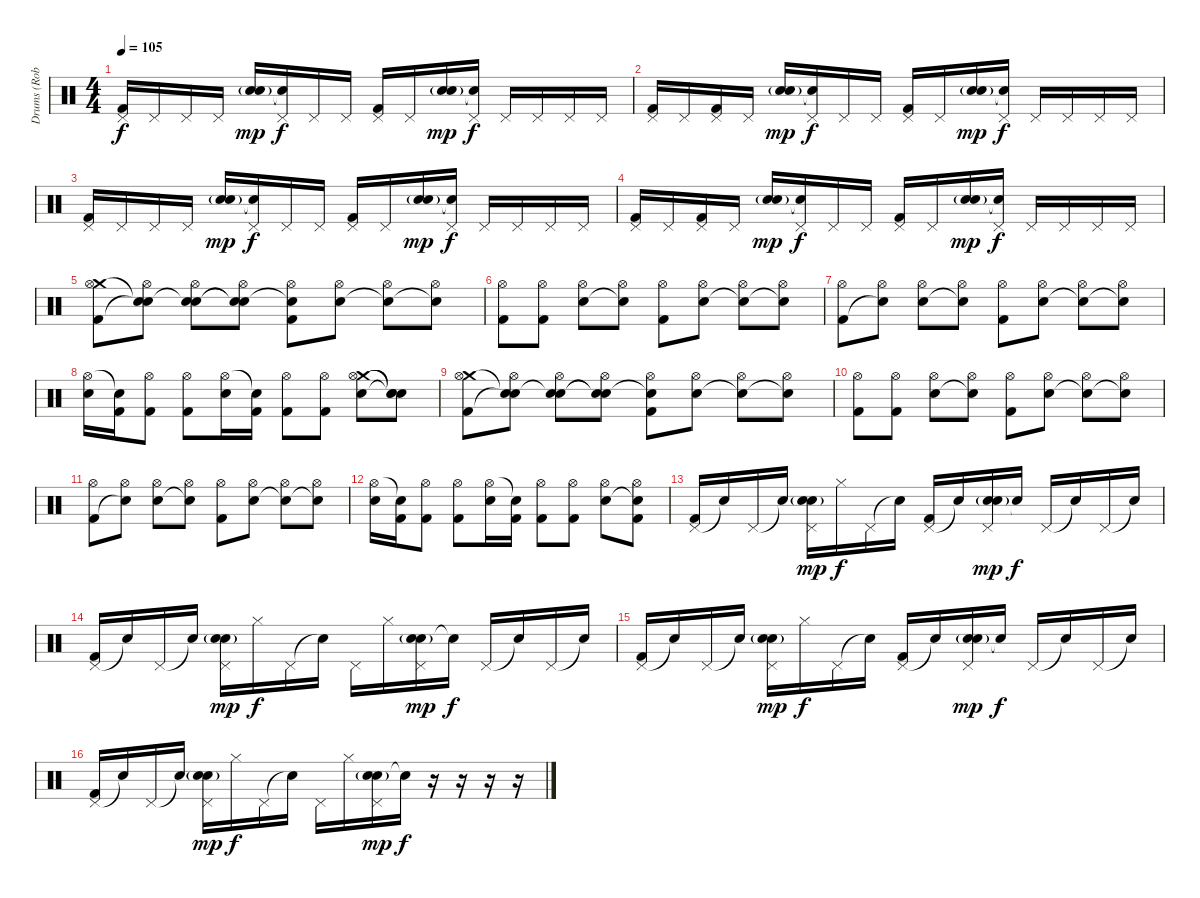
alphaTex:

\track ("Drums (Rob Bourdon)" "Drums (Rob") {instrument percussion}
\staff {score}
\articulation defaults
\ts (4 4)
\tempo 105
\clef neutral
\ks c
("Pedal Hi-Hat (hit)" "Kick (hit) 2").16{dy f} "Pedal Hi-Hat (hit)".16 "Pedal Hi-Hat (hit)".16 "Pedal Hi-Hat (hit)".16 ("Hand Clap (hit)"{g} "Electric Snare (hit)"{g}).16{dy mp} ("Pedal Hi-Hat (hit)" "Snare (hit)"{t}).16{dy f} "Pedal Hi-Hat (hit)".16 "Pedal Hi-Hat (hit)".16 ("Pedal Hi-Hat (hit)" "Kick (hit) 2").16 "Pedal Hi-Hat (hit)".16 ("Hand Clap (hit)"{g} "Electric Snare (hit)"{g}).16{dy mp} ("Pedal Hi-Hat (hit)" "Snare (hit)"{t}).16{dy f} "Pedal Hi-Hat (hit)".16 "Pedal Hi-Hat (hit)".16 "Pedal Hi-Hat (hit)".16 "Pedal Hi-Hat (hit)".16 |
("Pedal Hi-Hat (hit)" "Kick (hit) 2").16 "Pedal Hi-Hat (hit)".16 ("Pedal Hi-Hat (hit)" "Kick (hit) 2").16 "Pedal Hi-Hat (hit)".16 ("Hand Clap (hit)"{g} "Electric Snare (hit)"{g}).16{dy mp} ("Pedal Hi-Hat (hit)" "Snare (hit)"{t}).16{dy f} "Pedal Hi-Hat (hit)".16 "Pedal Hi-Hat (hit)".16 ("Pedal Hi-Hat (hit)" "Kick (hit) 2").16 "Pedal Hi-Hat (hit)".16 ("Hand Clap (hit)"{g} "Electric Snare (hit)"{g}).16{dy mp} ("Pedal Hi-Hat (hit)" "Snare (hit)"{t}).16{dy f} "Pedal Hi-Hat (hit)".16 "Pedal Hi-Hat (hit)".16 "Pedal Hi-Hat (hit)".16 "Pedal Hi-Hat (hit)".16 |
("Pedal Hi-Hat (hit)" "Kick (hit) 2").16 "Pedal Hi-Hat (hit)".16 "Pedal Hi-Hat (hit)".16 "Pedal Hi-Hat (hit)".16 ("Hand Clap (hit)"{g} "Electric Snare (hit)"{g}).16{dy mp} ("Pedal Hi-Hat (hit)" "Snare (hit)"{t}).16{dy f} "Pedal Hi-Hat (hit)".16 "Pedal Hi-Hat (hit)".16 ("Pedal Hi-Hat (hit)" "Kick (hit) 2").16 "Pedal Hi-Hat (hit)".16 ("Hand Clap (hit)"{g} "Electric Snare (hit)"{g}).16{dy mp} ("Pedal Hi-Hat (hit)" "Snare (hit)"{t}).16{dy f} "Pedal Hi-Hat (hit)".16 "Pedal Hi-Hat (hit)".16 "Pedal Hi-Hat (hit)".16 "Pedal Hi-Hat (hit)".16 |
("Pedal Hi-Hat (hit)" "Kick (hit) 2").16 "Pedal Hi-Hat (hit)".16 ("Pedal Hi-Hat (hit)" "Kick (hit) 2").16 "Pedal Hi-Hat (hit)".16 ("Hand Clap (hit)"{g} "Electric Snare (hit)"{g}).16{dy mp} ("Pedal Hi-Hat (hit)" "Snare (hit)"{t}).16{dy f} "Pedal Hi-Hat (hit)".16 "Pedal Hi-Hat (hit)".16 ("Pedal Hi-Hat (hit)" "Kick (hit) 2").16 "Pedal Hi-Hat (hit)".16 ("Hand Clap (hit)"{g} "Electric Snare (hit)"{g}).16{dy mp} ("Pedal Hi-Hat (hit)" "Snare (hit)"{t}).16{dy f} "Pedal Hi-Hat (hit)".16 "Pedal Hi-Hat (hit)".16 "Pedal Hi-Hat (hit)".16 "Pedal Hi-Hat (hit)".16 |
("Crash medium (hit)" "Hi-Hat (open)" "Kick (hit) 2").8 ("Snare (hit)"{t} "Hi-Hat (open)" "Snare (hit)"{t}).8 ("Snare (hit)"{t} "Hi-Hat (open)" "Electric Snare (hit)").8 ("Snare (hit)"{t} "Hi-Hat (open)" "Snare (hit)"{t}).8 ("Snare (hit)"{t} "Hi-Hat (open)" "Kick (hit) 2").8 ("Hi-Hat (open)" "Electric Snare (hit)").8 ("Hi-Hat (open)" "Snare (hit)"{t}).8 ("Hi-Hat (open)" "Snare (hit)"{t}).8 |
("Hi-Hat (open)" "Kick (hit) 2").8 ("Hi-Hat (open)" "Kick (hit) 2").8 ("Hi-Hat (open)" "Electric Snare (hit)").8 ("Hi-Hat (open)" "Snare (hit)"{t}).8 ("Hi-Hat (open)" "Kick (hit) 2").8 ("Hi-Hat (open)" "Electric Snare (hit)").8 ("Hi-Hat (open)" "Snare (hit)"{t}).8 ("Hi-Hat (open)" "Snare (hit)"{t}).8 |
("Hi-Hat (open)" "Kick (hit) 2").8 ("Hi-Hat (open)" "Snare (hit)"{t}).8 ("Hi-Hat (open)" "Electric Snare (hit)").8 ("Hi-Hat (open)" "Snare (hit)"{t}).8 ("Hi-Hat (open)" "Kick (hit) 2").8 ("Hi-Hat (open)" "Electric Snare (hit)").8 ("Hi-Hat (open)" "Snare (hit)"{t}).8 ("Hi-Hat (open)" "Snare (hit)"{t}).8 |
("Hi-Hat (open)" "Electric Snare (hit)").16 ("Snare (hit)"{t} "Kick (hit) 2").16 ("Hi-Hat (open)" "Kick (hit) 2").8 ("Hi-Hat (open)" "Kick (hit) 2").8 ("Hi-Hat (open)" "Electric Snare (hit)").16 ("Snare (hit)"{t} "Kick (hit) 2").16 ("Hi-Hat (open)" "Kick (hit) 2").8 ("Hi-Hat (open)" "Kick (hit) 2").8 ("Crash medium (hit)" "Hi-Hat (open)" "Electric Snare (hit)").8 ("Snare (hit)"{t} "Snare (hit)"{t} "Snare (hit)"{t}).8 |
("Crash medium (hit)" "Hi-Hat (open)" "Kick (hit) 2").8 ("Snare (hit)"{t} "Hi-Hat (open)" "Snare (hit)"{t}).8 ("Snare (hit)"{t} "Hi-Hat (open)" "Electric Snare (hit)").8 ("Snare (hit)"{t} "Hi-Hat (open)" "Snare (hit)"{t}).8 ("Snare (hit)"{t} "Hi-Hat (open)" "Kick (hit) 2").8 ("Hi-Hat (open)" "Electric Snare (hit)").8 ("Hi-Hat (open)" "Snare (hit)"{t}).8 ("Hi-Hat (open)" "Snare (hit)"{t}).8 |
("Hi-Hat (open)" "Kick (hit) 2").8 ("Hi-Hat (open)" "Kick (hit) 2").8 ("Hi-Hat (open)" "Electric Snare (hit)").8 ("Hi-Hat (open)" "Snare (hit)"{t}).8 ("Hi-Hat (open)" "Kick (hit) 2").8 ("Hi-Hat (open)" "Electric Snare (hit)").8 ("Hi-Hat (open)" "Snare (hit)"{t}).8 ("Hi-Hat (open)" "Snare (hit)"{t}).8 |
("Hi-Hat (open)" "Kick (hit) 2").8 ("Hi-Hat (open)" "Snare (hit)"{t}).8 ("Hi-Hat (open)" "Electric Snare (hit)").8 ("Hi-Hat (open)" "Snare (hit)"{t}).8 ("Hi-Hat (open)" "Kick (hit) 2").8 ("Hi-Hat (open)" "Electric Snare (hit)").8 ("Hi-Hat (open)" "Snare (hit)"{t}).8 ("Hi-Hat (open)" "Snare (hit)"{t}).8 |
("Hi-Hat (open)" "Electric Snare (hit)").16 ("Snare (hit)"{t} "Kick (hit) 2").16 ("Hi-Hat (open)" "Kick (hit) 2").8 ("Hi-Hat (open)" "Kick (hit) 2").8 ("Hi-Hat (open)" "Electric Snare (hit)").16 ("Snare (hit)"{t} "Kick (hit) 2").16 ("Hi-Hat (open)" "Kick (hit) 2").8 ("Hi-Hat (open)" "Kick (hit) 2").8 ("Hi-Hat (open)" "Electric Snare (hit)").8 ("Hi-Hat (open)" "Snare (hit)"{t} "Kick (hit) 2").8 |
("Pedal Hi-Hat (hit)" "Kick (hit) 2").16 "Snare (hit)"{t}.16 "Pedal Hi-Hat (hit)".16 "Snare (hit)"{t}.16 ("Electric Snare (hit)"{g} "Pedal Hi-Hat (hit)" "Hand Clap (hit)"{g}).16{dy mp} "Hi-Hat (closed)".16{dy f} "Pedal Hi-Hat (hit)".16 "Snare (hit)"{t}.16 ("Pedal Hi-Hat (hit)" "Kick (hit) 2").16 "Snare (hit)"{t}.16 ("Electric Snare (hit)"{g} "Pedal Hi-Hat (hit)" "Hand Clap (hit)"{g}).16{dy mp} "Snare (hit)"{t}.16{dy f} "Pedal Hi-Hat (hit)".16 "Snare (hit)"{t}.16 "Pedal Hi-Hat (hit)".16 "Snare (hit)"{t}.16 |
("Pedal Hi-Hat (hit)" "Kick (hit) 2").16 "Snare (hit)"{t}.16 "Pedal Hi-Hat (hit)".16 "Snare (hit)"{t}.16 ("Electric Snare (hit)"{g} "Pedal Hi-Hat (hit)" "Hand Clap (hit)"{g}).16{dy mp} "Hi-Hat (closed)".16{dy f} "Pedal Hi-Hat (hit)".16 "Snare (hit)"{t}.16 "Pedal Hi-Hat (hit)".16 "Hi-Hat (closed)".16 ("Electric Snare (hit)"{g} "Pedal Hi-Hat (hit)" "Hand Clap (hit)"{g}).16{dy mp} "Snare (hit)"{t}.16{dy f} "Pedal Hi-Hat (hit)".16 "Snare (hit)"{t}.16 "Pedal Hi-Hat (hit)".16 "Snare (hit)"{t}.16 |
("Pedal Hi-Hat (hit)" "Kick (hit) 2").16 "Snare (hit)"{t}.16 "Pedal Hi-Hat (hit)".16 "Snare (hit)"{t}.16 ("Electric Snare (hit)"{g} "Pedal Hi-Hat (hit)" "Hand Clap (hit)"{g}).16{dy mp} "Hi-Hat (closed)".16{dy f} "Pedal Hi-Hat (hit)".16 "Snare (hit)"{t}.16 ("Pedal Hi-Hat (hit)" "Kick (hit) 2").16 "Snare (hit)"{t}.16 ("Electric Snare (hit)"{g} "Pedal Hi-Hat (hit)" "Hand Clap (hit)"{g}).16{dy mp} "Snare (hit)"{t}.16{dy f} "Pedal Hi-Hat (hit)".16 "Snare (hit)"{t}.16 "Pedal Hi-Hat (hit)".16 "Snare (hit)"{t}.16 |
("Pedal Hi-Hat (hit)" "Kick (hit) 2").16 "Snare (hit)"{t}.16 "Pedal Hi-Hat (hit)".16 "Snare (hit)"{t}.16 ("Electric Snare (hit)"{g} "Pedal Hi-Hat (hit)" "Hand Clap (hit)"{g}).16{dy mp} "Hi-Hat (closed)".16{dy f} "Pedal Hi-Hat (hit)".16 "Snare (hit)"{t}.16 "Pedal Hi-Hat (hit)".16 "Hi-Hat (closed)".16 ("Electric Snare (hit)"{g} "Pedal Hi-Hat (hit)" "Hand Clap (hit)"{g}).16{dy mp} "Snare (hit)"{t}.16{dy f} r.16 r.16 r.16 r.16
